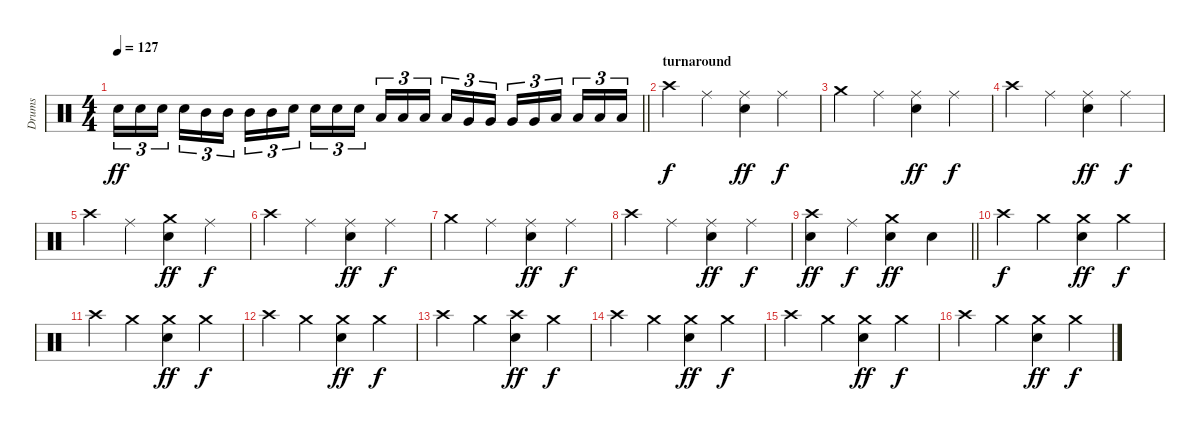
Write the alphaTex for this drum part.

\track ("Drums" "Drums") {instrument percussion}
\staff {score}
\articulation defaults
\ts (4 4)
\section ("" "")
\tempo 127
\clef neutral
\barLineRight lightlight
\ks c "Snare (hit) 2".16{tu (3 2) dy ff} "Snare (hit) 2".16{tu (3 2)} "Snare (hit) 2".16{tu (3 2) beam splitsecondary} "Snare (hit) 2".16{tu (3 2)} "Mid Tom (hit)".16{tu (3 2)} "Mid Tom (hit)".16{tu (3 2)} "Mid Tom (hit)".16{tu (3 2)} "Mid Tom (hit)".16{tu (3 2)} "Snare (hit) 2".16{tu (3 2) beam splitsecondary} "Snare (hit) 2".16{tu (3 2)} "Snare (hit) 2".16{tu (3 2)} "Snare (hit) 2".16{tu (3 2)} "Low Tom (hit)".16{tu (3 2)} "Low Tom (hit)".16{tu (3 2)} "Low Tom (hit)".16{tu (3 2) beam splitsecondary} "Low Tom (hit)".16{tu (3 2)} "Very Low Tom (hit)".16{tu (3 2)} "Very Low Tom (hit)".16{tu (3 2)} "Very Low Tom (hit)".16{tu (3 2)} "Very Low Tom (hit)".16{tu (3 2)} "Low Floor Tom (hit)".16{tu (3 2) beam splitsecondary} "Low Floor Tom (hit)".16{tu (3 2)} "Low Floor Tom (hit)".16{tu (3 2)} "Low Floor Tom (hit)".16{tu (3 2)}
|
\section ("" "turnaround")
"Crash high (hit)".4{dy f} "Ride (middle)".4 ("Ride (middle)" "Snare (hit) 2").4{dy ff} "Ride (middle)".4{dy f} |
"Crash medium (hit)".4 "Ride (middle)".4 ("Ride (middle)" "Snare (hit) 2").4{dy ff} "Ride (middle)".4{dy f} |
"Crash high (hit)".4 "Ride (middle)".4 ("Ride (middle)" "Snare (hit) 2").4{dy ff} "Ride (middle)".4{dy f} |
"Crash high (hit)".4 "Ride (middle)".4 ("Crash medium (hit)" "Snare (hit) 2").4{dy ff} "Ride (middle)".4{dy f} |
"Crash high (hit)".4 "Ride (middle)".4 ("Ride (middle)" "Snare (hit) 2").4{dy ff} "Ride (middle)".4{dy f} |
"Crash medium (hit)".4 "Ride (middle)".4 ("Ride (middle)" "Snare (hit) 2").4{dy ff} "Ride (middle)".4{dy f} |
"Crash high (hit)".4 "Ride (middle)".4 ("Ride (middle)" "Snare (hit) 2").4{dy ff} "Ride (middle)".4{dy f} |
\barLineRight lightlight
("Crash high (hit)" "Snare (hit) 2").4{dy ff} "Ride (middle)".4{dy f} ("Crash medium (hit)" "Snare (hit) 2").4{dy ff} "Snare (hit) 2".4 |
\section ("" "")
"Crash high (hit)".4{dy f} "Crash medium (hit)".4 ("Crash medium (hit)" "Snare (hit) 2").4{dy ff} "Crash medium (hit)".4{dy f} |
"Crash high (hit)".4 "Crash medium (hit)".4 ("Crash medium (hit)" "Snare (hit) 2").4{dy ff} "Crash medium (hit)".4{dy f} |
"Crash high (hit)".4 "Crash medium (hit)".4 ("Crash medium (hit)" "Snare (hit) 2").4{dy ff} "Crash medium (hit)".4{dy f} |
"Crash high (hit)".4 "Crash medium (hit)".4 ("Crash high (hit)" "Snare (hit) 2").4{dy ff} "Crash medium (hit)".4{dy f} |
"Crash high (hit)".4 "Crash medium (hit)".4 ("Crash medium (hit)" "Snare (hit) 2").4{dy ff} "Crash medium (hit)".4{dy f} |
"Crash high (hit)".4 "Crash medium (hit)".4 ("Crash medium (hit)" "Snare (hit) 2").4{dy ff} "Crash medium (hit)".4{dy f} |
"Crash high (hit)".4 "Crash medium (hit)".4 ("Crash medium (hit)" "Snare (hit) 2").4{dy ff} "Crash medium (hit)".4{dy f}
